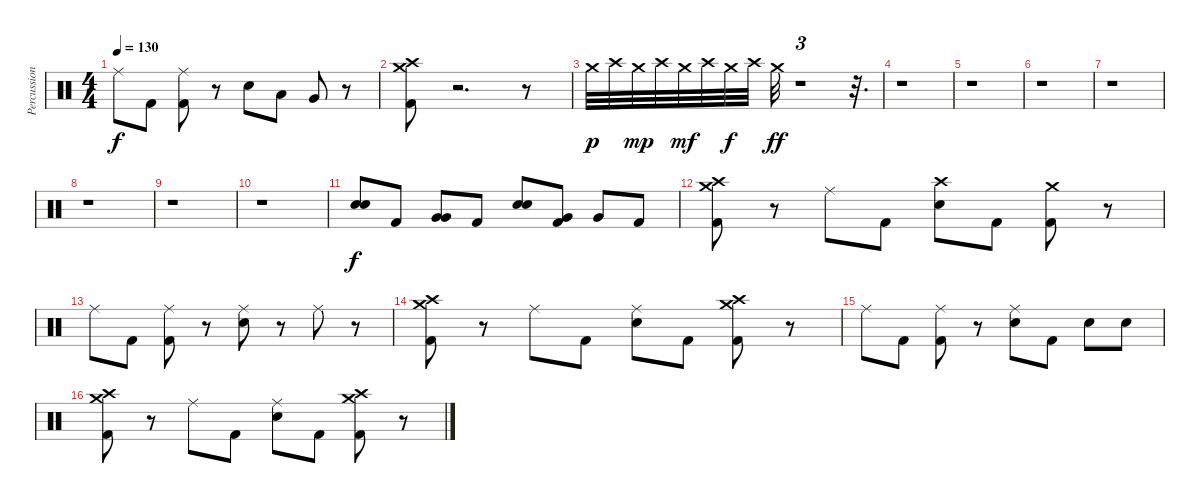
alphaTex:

\track ("Percussion" "Percussion") {instrument percussion}
\staff {score}
\articulation defaults
\ts (4 4)
\tempo 130
\clef neutral
\ks c "Ride (middle)".8{dy f} "Kick (hit) 2".8
("Ride (middle)" "Kick (hit) 2").8 r.8 "Snare (hit) 2".8 "Low Tom (hit)".8 "Very Low Tom (hit)".8 r.8 |
("Crash medium (hit)" "Crash high (hit)" "Kick (hit) 2").8 r.2{d} r.8 |
"Crash medium (hit)".32{dy p} "Crash high (hit)".32 "Crash medium (hit)".32{dy mp} "Crash high (hit)".32 "Crash medium (hit)".32{dy mf} "Crash high (hit)".32 "Crash medium (hit)".32{dy f} "Crash high (hit)".32 "Crash medium (hit)".32{dy ff} r.1{tu (3 2)} r.32{d} |
r.1 |
r.1 |
r.1 |
r.1 |
r.1 |
r.1 |
r.1 |
("Snare (hit) 2" "Snare (hit) 2").8{bd 240 dy f} "Kick (hit) 2".8 ("Very Low Tom (hit)" "Very Low Tom (hit)").8{bd 240} "Kick (hit) 2".8 ("Snare (hit) 2" "Snare (hit) 2").8{bd 240} ("Very Low Tom (hit)" "Kick (hit) 2").8 "Very Low Tom (hit)".8 "Kick (hit) 2".8 |
("Crash medium (hit)" "Crash high (hit)" "Kick (hit) 2").8 r.8 "Ride (middle)".8 "Kick (hit) 2".8 ("Crash high (hit)" "Snare (hit) 2").8 "Kick (hit) 2".8 ("Crash medium (hit)" "Kick (hit) 2").8 r.8 |
"Ride (middle)".8 "Kick (hit) 2".8 ("Ride (middle)" "Kick (hit) 2").8 r.8 ("Ride (middle)" "Snare (hit) 2").8 r.8 "Ride (middle)".8 r.8 |
("Crash medium (hit)" "Crash high (hit)" "Kick (hit) 2").8 r.8 "Ride (middle)".8 "Kick (hit) 2".8 ("Ride (middle)" "Snare (hit) 2").8 "Kick (hit) 2".8 ("Crash medium (hit)" "Crash high (hit)" "Kick (hit) 2").8 r.8 |
"Ride (middle)".8 "Kick (hit) 2".8 ("Ride (middle)" "Kick (hit) 2").8 r.8 ("Ride (middle)" "Snare (hit) 2").8 "Kick (hit) 2".8 "Snare (hit) 2".8 "Snare (hit) 2".8 |
("Crash medium (hit)" "Crash high (hit)" "Kick (hit) 2").8 r.8 "Ride (middle)".8 "Kick (hit) 2".8 ("Ride (middle)" "Snare (hit) 2").8 "Kick (hit) 2".8 ("Crash medium (hit)" "Crash high (hit)" "Kick (hit) 2").8 r.8
